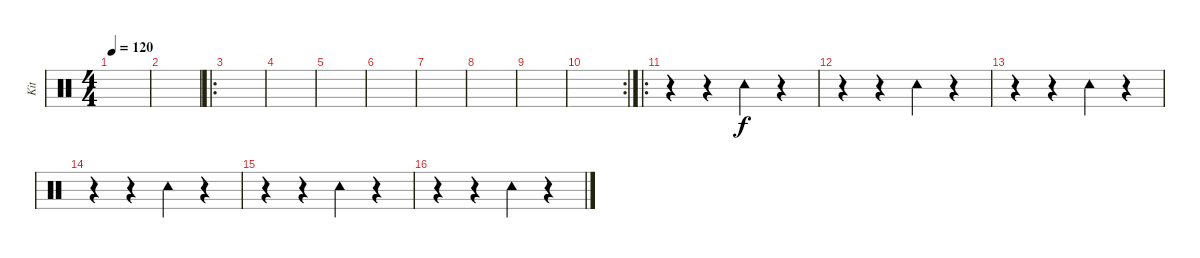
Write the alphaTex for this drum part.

\track ("Kit" "Kit") {instrument percussion}
\staff {score}
\articulation defaults
\ts (4 4)
\tempo 120
\clef neutral
\ks c
|
|
\ro
|
|
|
|
|
|
|
\rc 2
|
\ro
r.4 r.4 "Tambourine (hit)".4 r.4 |
r.4 r.4 "Tambourine (hit)".4 r.4 |
r.4 r.4 "Tambourine (hit)".4 r.4 |
r.4 r.4 "Tambourine (hit)".4 r.4 |
r.4 r.4 "Tambourine (hit)".4 r.4 |
r.4 r.4 "Tambourine (hit)".4 r.4
